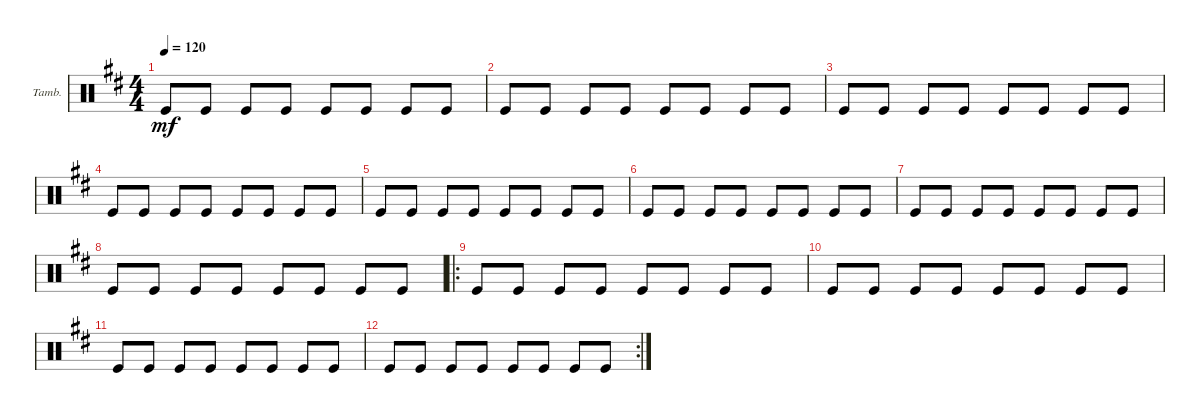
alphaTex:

\defaultSystemsLayout 4
\bracketExtendMode groupsimilarinstruments
\firstSystemTrackNameOrientation horizontal
\otherSystemsTrackNameOrientation horizontal
\track ("Tambourine" "Tamb.") {instrument percussion}
\staff {score}
\articulation defaults
\ts (4 4)
\tempo 120
\clef neutral
\ks d "Kick (hit)".8{dy mf} "Kick (hit)".8 "Kick (hit)".8 "Kick (hit)".8 "Kick (hit)".8 "Kick (hit)".8 "Kick (hit)".8 "Kick (hit)".8
|
"Kick (hit)".8 "Kick (hit)".8 "Kick (hit)".8 "Kick (hit)".8 "Kick (hit)".8 "Kick (hit)".8 "Kick (hit)".8 "Kick (hit)".8 |
"Kick (hit)".8 "Kick (hit)".8 "Kick (hit)".8 "Kick (hit)".8 "Kick (hit)".8 "Kick (hit)".8 "Kick (hit)".8 "Kick (hit)".8 |
"Kick (hit)".8 "Kick (hit)".8 "Kick (hit)".8 "Kick (hit)".8 "Kick (hit)".8 "Kick (hit)".8 "Kick (hit)".8 "Kick (hit)".8 |
"Kick (hit)".8 "Kick (hit)".8 "Kick (hit)".8 "Kick (hit)".8 "Kick (hit)".8 "Kick (hit)".8 "Kick (hit)".8 "Kick (hit)".8 |
"Kick (hit)".8 "Kick (hit)".8 "Kick (hit)".8 "Kick (hit)".8 "Kick (hit)".8 "Kick (hit)".8 "Kick (hit)".8 "Kick (hit)".8 |
"Kick (hit)".8 "Kick (hit)".8 "Kick (hit)".8 "Kick (hit)".8 "Kick (hit)".8 "Kick (hit)".8 "Kick (hit)".8 "Kick (hit)".8 |
"Kick (hit)".8 "Kick (hit)".8 "Kick (hit)".8 "Kick (hit)".8 "Kick (hit)".8 "Kick (hit)".8 "Kick (hit)".8 "Kick (hit)".8 |
\ro "Kick (hit)".8 "Kick (hit)".8 "Kick (hit)".8 "Kick (hit)".8 "Kick (hit)".8 "Kick (hit)".8 "Kick (hit)".8 "Kick (hit)".8
|
"Kick (hit)".8 "Kick (hit)".8 "Kick (hit)".8 "Kick (hit)".8 "Kick (hit)".8 "Kick (hit)".8 "Kick (hit)".8 "Kick (hit)".8 |
"Kick (hit)".8 "Kick (hit)".8 "Kick (hit)".8 "Kick (hit)".8 "Kick (hit)".8 "Kick (hit)".8 "Kick (hit)".8 "Kick (hit)".8 |
\rc 2 "Kick (hit)".8 "Kick (hit)".8 "Kick (hit)".8 "Kick (hit)".8 "Kick (hit)".8 "Kick (hit)".8 "Kick (hit)".8 "Kick (hit)".8
